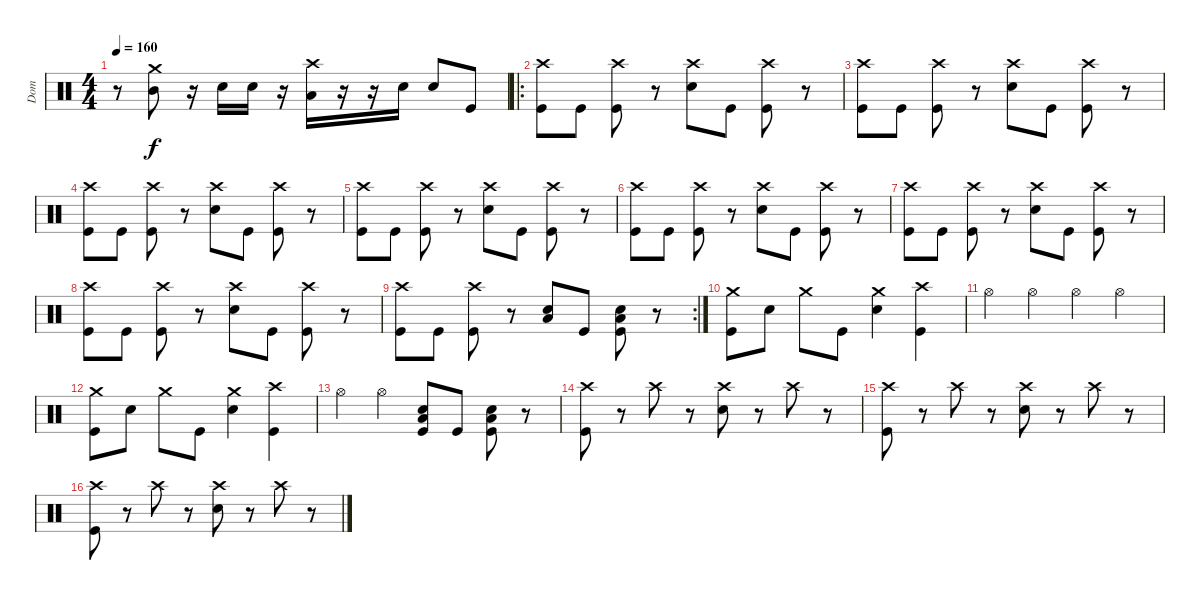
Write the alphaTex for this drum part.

\track ("Dom" "Dom") {instrument percussion}
\staff {score}
\articulation defaults
\ts (4 4)
\tempo 160
\clef neutral
\ks c
r.8{dy f} ("Mid Tom (hit)" "Crash medium (hit)").8 r.16 "Snare (hit) 2".16 "Snare (hit) 2".16 r.16 ("Low Tom (hit)" "Crash high (hit)").16 r.16 r.16 "Snare (hit) 2".16 "Snare (hit) 2".8 "Kick (hit)".8 |
\ro
("Crash high (hit)" "Kick (hit)").8 "Kick (hit)".8 ("Crash high (hit)" "Kick (hit)").8 r.8 ("Crash high (hit)" "Snare (hit) 2").8 "Kick (hit)".8 ("Crash high (hit)" "Kick (hit)").8 r.8 |
("Crash high (hit)" "Kick (hit)").8 "Kick (hit)".8 ("Crash high (hit)" "Kick (hit)").8 r.8 ("Crash high (hit)" "Snare (hit) 2").8 "Kick (hit)".8 ("Crash high (hit)" "Kick (hit)").8 r.8 |
("Crash high (hit)" "Kick (hit)").8 "Kick (hit)".8 ("Crash high (hit)" "Kick (hit)").8 r.8 ("Crash high (hit)" "Snare (hit) 2").8 "Kick (hit)".8 ("Crash high (hit)" "Kick (hit)").8 r.8 |
("Crash high (hit)" "Kick (hit)").8 "Kick (hit)".8 ("Crash high (hit)" "Kick (hit)").8 r.8 ("Crash high (hit)" "Snare (hit) 2").8 "Kick (hit)".8 ("Crash high (hit)" "Kick (hit)").8 r.8 |
("Crash high (hit)" "Kick (hit)").8 "Kick (hit)".8 ("Crash high (hit)" "Kick (hit)").8 r.8 ("Crash high (hit)" "Snare (hit) 2").8 "Kick (hit)".8 ("Crash high (hit)" "Kick (hit)").8 r.8 |
("Crash high (hit)" "Kick (hit)").8 "Kick (hit)".8 ("Crash high (hit)" "Kick (hit)").8 r.8 ("Crash high (hit)" "Snare (hit) 2").8 "Kick (hit)".8 ("Crash high (hit)" "Kick (hit)").8 r.8 |
("Crash high (hit)" "Kick (hit)").8 "Kick (hit)".8 ("Crash high (hit)" "Kick (hit)").8 r.8 ("Crash high (hit)" "Snare (hit) 2").8 "Kick (hit)".8 ("Crash high (hit)" "Kick (hit)").8 r.8 |
\rc 2
("Crash high (hit)" "Kick (hit)").8 "Kick (hit)".8 ("Crash high (hit)" "Kick (hit)").8 r.8 ("Low Floor Tom (hit)" "Snare (hit) 2").8 "Kick (hit)".8 ("Low Floor Tom (hit)" "Snare (hit) 2" "Kick (hit)").8 r.8 |
("Crash medium (hit)" "Kick (hit)").8 "Snare (hit) 2".8 "Crash medium (hit)".8 "Kick (hit)".8 ("Crash medium (hit)" "Snare (hit) 2").4 ("Crash high (hit)" "Kick (hit)").4 |
"Hi-Hat (open)".4 "Hi-Hat (open)".4 "Hi-Hat (open)".4 "Hi-Hat (open)".4 |
("Crash medium (hit)" "Kick (hit)").8 "Snare (hit) 2".8 "Crash medium (hit)".8 "Kick (hit)".8 ("Crash medium (hit)" "Snare (hit) 2").4 ("Crash high (hit)" "Kick (hit)").4 |
"Hi-Hat (open)".4 "Hi-Hat (open)".4 ("Low Floor Tom (hit)" "Snare (hit) 2" "Kick (hit)").8 "Kick (hit)".8 ("Low Floor Tom (hit)" "Snare (hit) 2" "Kick (hit)").8 r.8 |
("Crash high (hit)" "Kick (hit)").8 r.8 "Crash high (hit)".8 r.8 ("Crash high (hit)" "Snare (hit) 2").8 r.8 "Crash high (hit)".8 r.8 |
("Crash high (hit)" "Kick (hit)").8 r.8 "Crash high (hit)".8 r.8 ("Crash high (hit)" "Snare (hit) 2").8 r.8 "Crash high (hit)".8 r.8 |
("Crash high (hit)" "Kick (hit)").8 r.8 "Crash high (hit)".8 r.8 ("Crash high (hit)" "Snare (hit) 2").8 r.8 "Crash high (hit)".8 r.8
